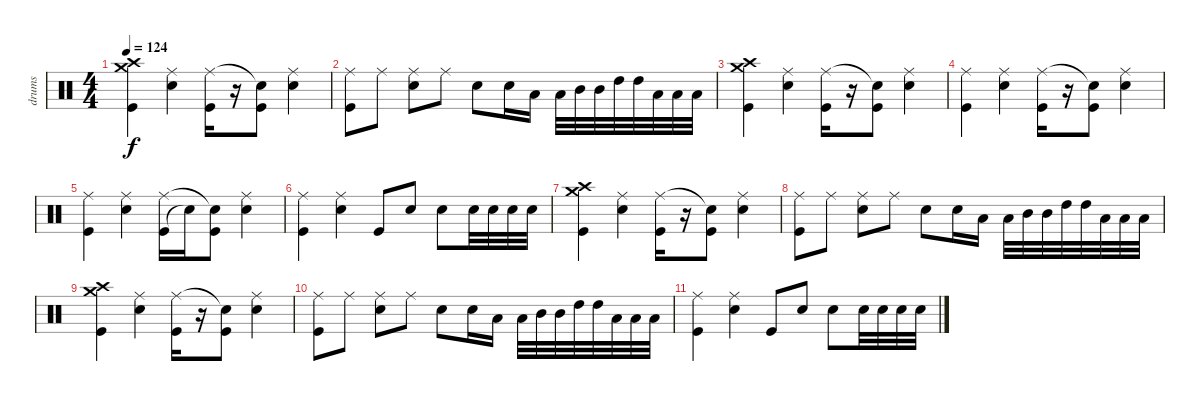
\track ("drums" "drums") {instrument percussion}
\staff {score}
\articulation defaults
\ts (4 4)
\tempo 124
\clef neutral
\ks c
("Kick (hit)" "Crash medium (hit)" "Crash high (hit)").4{dy f} ("Snare (hit) 2" "Ride (middle)").4 ("Kick (hit)" "Ride (middle)").16 r.16 ("Kick (hit)" "Snare (hit)"{t}).8 ("Snare (hit) 2" "Ride (middle)").4 |
("Kick (hit)" "Ride (middle)").8 "Ride (middle)".8 ("Snare (hit) 2" "Ride (middle)").8 "Ride (middle)".8 "Snare (hit) 2".8 "Snare (hit) 2".16 "Low Tom (hit)".16 "Low Tom (hit)".32 "Mid Tom (hit)".32 "Mid Tom (hit)".32 "High Tom (hit)".32 "High Tom (hit)".32 "Low Floor Tom (hit)".32 "Low Floor Tom (hit)".32 "Low Floor Tom (hit)".32 |
("Kick (hit)" "Crash medium (hit)" "Crash high (hit)").4 ("Snare (hit) 2" "Ride (middle)").4 ("Kick (hit)" "Ride (middle)").16 r.16 ("Kick (hit)" "Snare (hit)"{t}).8 ("Snare (hit) 2" "Ride (middle)").4 |
("Kick (hit)" "Ride (middle)").4 ("Snare (hit) 2" "Ride (middle)").4 ("Kick (hit)" "Ride (middle)").16 r.16 ("Kick (hit)" "Snare (hit)"{t}).8 ("Snare (hit) 2" "Ride (middle)").4 |
("Kick (hit)" "Ride (middle)").4 ("Snare (hit) 2" "Ride (middle)").4 ("Kick (hit)" "Ride (middle)").16 "Snare (hit)"{t}.16 ("Kick (hit)" "Snare (hit)"{t}).8 ("Snare (hit) 2" "Ride (middle)").4 |
("Kick (hit)" "Ride (middle)").4 ("Snare (hit) 2" "Ride (middle)").4 "Kick (hit)".8 "Snare (hit) 2".8 "Snare (hit) 2".8 "Snare (hit) 2".32 "Snare (hit) 2".32 "Snare (hit) 2".32 "Snare (hit) 2".32 |
("Kick (hit)" "Crash medium (hit)" "Crash high (hit)").4 ("Snare (hit) 2" "Ride (middle)").4 ("Kick (hit)" "Ride (middle)").16 r.16 ("Kick (hit)" "Snare (hit)"{t}).8 ("Snare (hit) 2" "Ride (middle)").4 |
("Kick (hit)" "Ride (middle)").8 "Ride (middle)".8 ("Snare (hit) 2" "Ride (middle)").8 "Ride (middle)".8 "Snare (hit) 2".8 "Snare (hit) 2".16 "Low Tom (hit)".16 "Low Tom (hit)".32 "Mid Tom (hit)".32 "Mid Tom (hit)".32 "High Tom (hit)".32 "High Tom (hit)".32 "Low Floor Tom (hit)".32 "Low Floor Tom (hit)".32 "Low Floor Tom (hit)".32 |
("Kick (hit)" "Crash medium (hit)" "Crash high (hit)").4 ("Snare (hit) 2" "Ride (middle)").4 ("Kick (hit)" "Ride (middle)").16 r.16 ("Kick (hit)" "Snare (hit)"{t}).8 ("Snare (hit) 2" "Ride (middle)").4 |
("Kick (hit)" "Ride (middle)").8 "Ride (middle)".8 ("Snare (hit) 2" "Ride (middle)").8 "Ride (middle)".8 "Snare (hit) 2".8 "Snare (hit) 2".16 "Low Tom (hit)".16 "Low Tom (hit)".32 "Mid Tom (hit)".32 "Mid Tom (hit)".32 "High Tom (hit)".32 "High Tom (hit)".32 "Low Floor Tom (hit)".32 "Low Floor Tom (hit)".32 "Low Floor Tom (hit)".32 |
("Kick (hit)" "Ride (middle)").4 ("Snare (hit) 2" "Ride (middle)").4 "Kick (hit)".8 "Snare (hit) 2".8 "Snare (hit) 2".8 "Snare (hit) 2".32 "Snare (hit) 2".32 "Snare (hit) 2".32 "Snare (hit) 2".32
